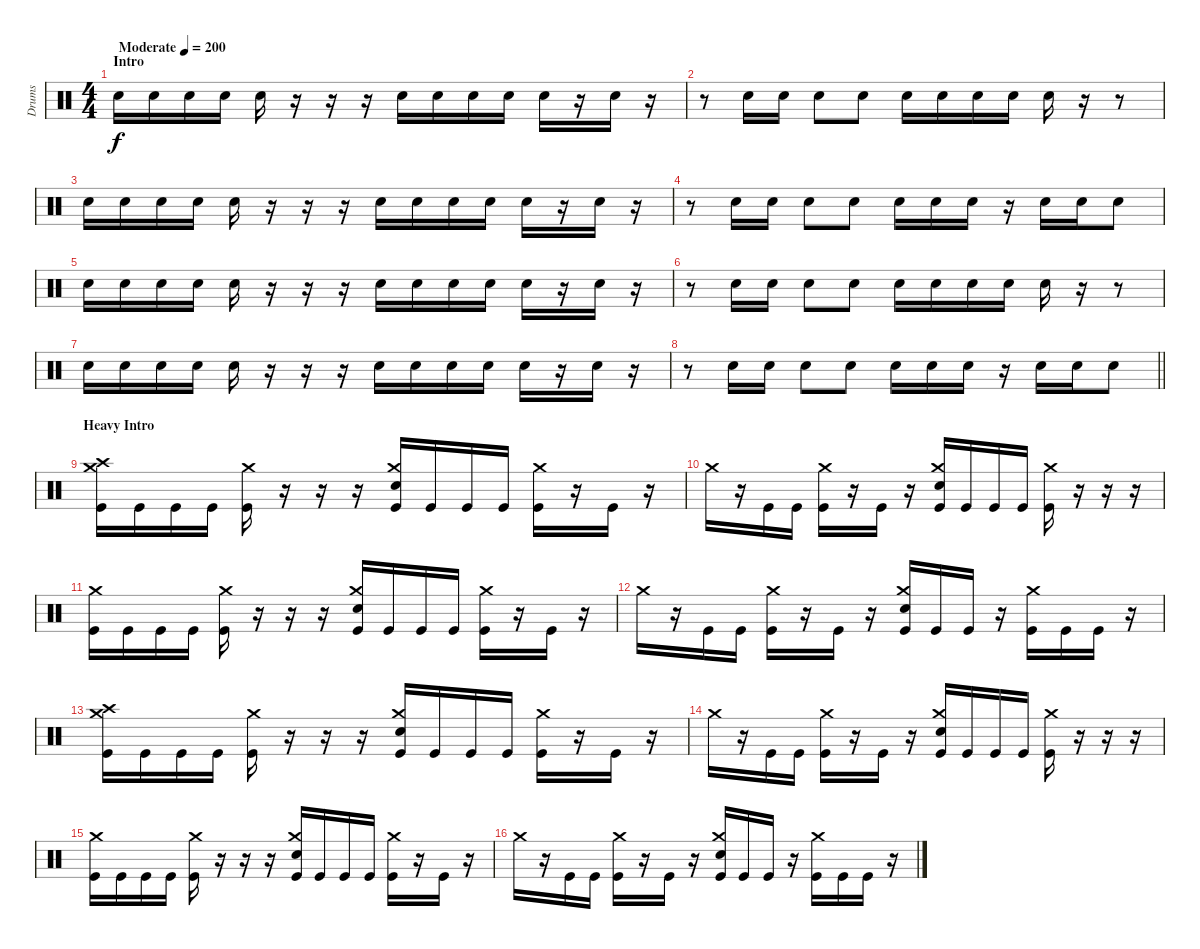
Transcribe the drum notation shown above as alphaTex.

\track ("Drums" "Drums") {instrument percussion}
\staff {score}
\articulation defaults
\ts (4 4)
\section ("" "Intro")
\tempo (200 "Moderate")
\clef neutral
\ks c "Electric Snare (hit)".16{dy f} "Electric Snare (hit)".16 "Electric Snare (hit)".16 "Electric Snare (hit)".16 "Electric Snare (hit)".16
r.16 r.16 r.16 "Electric Snare (hit)".16 "Electric Snare (hit)".16 "Electric Snare (hit)".16 "Electric Snare (hit)".16 "Electric Snare (hit)".16 r.16 "Electric Snare (hit)".16 r.16 |
r.8 "Electric Snare (hit)".16 "Electric Snare (hit)".16 "Electric Snare (hit)".8 "Electric Snare (hit)".8 "Electric Snare (hit)".16 "Electric Snare (hit)".16 "Electric Snare (hit)".16 "Electric Snare (hit)".16 "Electric Snare (hit)".16 r.16 r.8 |
"Electric Snare (hit)".16 "Electric Snare (hit)".16 "Electric Snare (hit)".16 "Electric Snare (hit)".16 "Electric Snare (hit)".16 r.16 r.16 r.16 "Electric Snare (hit)".16 "Electric Snare (hit)".16 "Electric Snare (hit)".16 "Electric Snare (hit)".16 "Electric Snare (hit)".16 r.16 "Electric Snare (hit)".16 r.16 |
r.8 "Electric Snare (hit)".16 "Electric Snare (hit)".16 "Electric Snare (hit)".8 "Electric Snare (hit)".8 "Electric Snare (hit)".16 "Electric Snare (hit)".16 "Electric Snare (hit)".16 r.16 "Electric Snare (hit)".16 "Electric Snare (hit)".16 "Electric Snare (hit)".8 |
"Electric Snare (hit)".16 "Electric Snare (hit)".16 "Electric Snare (hit)".16 "Electric Snare (hit)".16 "Electric Snare (hit)".16 r.16 r.16 r.16 "Electric Snare (hit)".16 "Electric Snare (hit)".16 "Electric Snare (hit)".16 "Electric Snare (hit)".16 "Electric Snare (hit)".16 r.16 "Electric Snare (hit)".16 r.16 |
r.8 "Electric Snare (hit)".16 "Electric Snare (hit)".16 "Electric Snare (hit)".8 "Electric Snare (hit)".8 "Electric Snare (hit)".16 "Electric Snare (hit)".16 "Electric Snare (hit)".16 "Electric Snare (hit)".16 "Electric Snare (hit)".16 r.16 r.8 |
"Electric Snare (hit)".16 "Electric Snare (hit)".16 "Electric Snare (hit)".16 "Electric Snare (hit)".16 "Electric Snare (hit)".16 r.16 r.16 r.16 "Electric Snare (hit)".16 "Electric Snare (hit)".16 "Electric Snare (hit)".16 "Electric Snare (hit)".16 "Electric Snare (hit)".16 r.16 "Electric Snare (hit)".16 r.16 |
\barLineRight lightlight
r.8 "Electric Snare (hit)".16 "Electric Snare (hit)".16 "Electric Snare (hit)".8 "Electric Snare (hit)".8 "Electric Snare (hit)".16 "Electric Snare (hit)".16 "Electric Snare (hit)".16 r.16 "Electric Snare (hit)".16 "Electric Snare (hit)".16 "Electric Snare (hit)".8 |
\section ("" "Heavy Intro")
("Crash medium (hit)" "Crash high (hit)" "Kick (hit)").16 "Kick (hit)".16 "Kick (hit)".16 "Kick (hit)".16 ("Crash medium (hit)" "Kick (hit)").16 r.16 r.16 r.16 ("Crash medium (hit)" "Electric Snare (hit)" "Kick (hit)").16 "Kick (hit)".16 "Kick (hit)".16 "Kick (hit)".16 ("Crash medium (hit)" "Kick (hit)").16 r.16 "Kick (hit)".16 r.16 |
"Crash medium (hit)".16 r.16 "Kick (hit)".16 "Kick (hit)".16 ("Crash medium (hit)" "Kick (hit)").16 r.16 "Kick (hit)".16 r.16 ("Crash medium (hit)" "Electric Snare (hit)" "Kick (hit)").16 "Kick (hit)".16 "Kick (hit)".16 "Kick (hit)".16 ("Crash medium (hit)" "Kick (hit)").16 r.16 r.16 r.16 |
("Crash medium (hit)" "Kick (hit)").16 "Kick (hit)".16 "Kick (hit)".16 "Kick (hit)".16 ("Crash medium (hit)" "Kick (hit)").16 r.16 r.16 r.16 ("Crash medium (hit)" "Electric Snare (hit)" "Kick (hit)").16 "Kick (hit)".16 "Kick (hit)".16 "Kick (hit)".16 ("Crash medium (hit)" "Kick (hit)").16 r.16 "Kick (hit)".16 r.16 |
"Crash medium (hit)".16 r.16 "Kick (hit)".16 "Kick (hit)".16 ("Crash medium (hit)" "Kick (hit)").16 r.16 "Kick (hit)".16 r.16 ("Crash medium (hit)" "Electric Snare (hit)" "Kick (hit)").16 "Kick (hit)".16 "Kick (hit)".16 r.16 ("Crash medium (hit)" "Kick (hit)").16 "Kick (hit)".16 "Kick (hit)".16 r.16 |
("Crash medium (hit)" "Crash high (hit)" "Kick (hit)").16 "Kick (hit)".16 "Kick (hit)".16 "Kick (hit)".16 ("Crash medium (hit)" "Kick (hit)").16 r.16 r.16 r.16 ("Crash medium (hit)" "Electric Snare (hit)" "Kick (hit)").16 "Kick (hit)".16 "Kick (hit)".16 "Kick (hit)".16 ("Crash medium (hit)" "Kick (hit)").16 r.16 "Kick (hit)".16 r.16 |
"Crash medium (hit)".16 r.16 "Kick (hit)".16 "Kick (hit)".16 ("Crash medium (hit)" "Kick (hit)").16 r.16 "Kick (hit)".16 r.16 ("Crash medium (hit)" "Electric Snare (hit)" "Kick (hit)").16 "Kick (hit)".16 "Kick (hit)".16 "Kick (hit)".16 ("Crash medium (hit)" "Kick (hit)").16 r.16 r.16 r.16 |
("Crash medium (hit)" "Kick (hit)").16 "Kick (hit)".16 "Kick (hit)".16 "Kick (hit)".16 ("Crash medium (hit)" "Kick (hit)").16 r.16 r.16 r.16 ("Crash medium (hit)" "Electric Snare (hit)" "Kick (hit)").16 "Kick (hit)".16 "Kick (hit)".16 "Kick (hit)".16 ("Crash medium (hit)" "Kick (hit)").16 r.16 "Kick (hit)".16 r.16 |
"Crash medium (hit)".16 r.16 "Kick (hit)".16 "Kick (hit)".16 ("Crash medium (hit)" "Kick (hit)").16 r.16 "Kick (hit)".16 r.16 ("Crash medium (hit)" "Electric Snare (hit)" "Kick (hit)").16 "Kick (hit)".16 "Kick (hit)".16 r.16 ("Crash medium (hit)" "Kick (hit)").16 "Kick (hit)".16 "Kick (hit)".16 r.16
